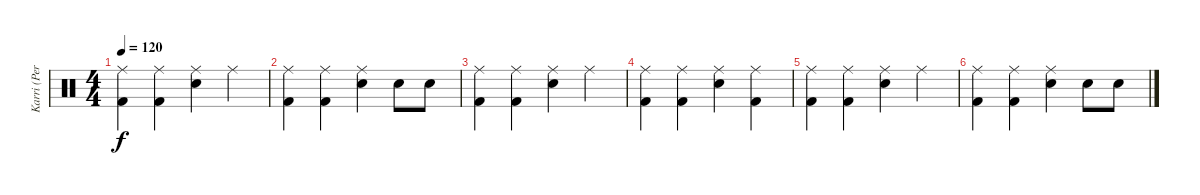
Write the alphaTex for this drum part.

\track ("Karri (Percussion)" "Karri (Per") {instrument percussion}
\staff {score}
\articulation defaults
\ts (4 4)
\tempo 120
\clef neutral
\ks c
("Ride (middle)" "Kick (hit) 2").4{dy f volume 7} ("Ride (middle)" "Kick (hit) 2").4 ("Ride (middle)" "Snare (hit) 2").4 "Ride (middle)".4 |
("Ride (middle)" "Kick (hit) 2").4 ("Ride (middle)" "Kick (hit) 2").4 ("Ride (middle)" "Snare (hit) 2").4 "Snare (hit) 2".8 "Snare (hit) 2".8 |
("Ride (middle)" "Kick (hit) 2").4 ("Ride (middle)" "Kick (hit) 2").4 ("Ride (middle)" "Snare (hit) 2").4 "Ride (middle)".4 |
("Ride (middle)" "Kick (hit) 2").4 ("Ride (middle)" "Kick (hit) 2").4 ("Ride (middle)" "Snare (hit) 2").4 ("Ride (middle)" "Kick (hit) 2").4 |
("Ride (middle)" "Kick (hit) 2").4{volume 4} ("Ride (middle)" "Kick (hit) 2").4 ("Ride (middle)" "Electric Snare (hit)").4 "Ride (middle)".4 |
("Ride (middle)" "Kick (hit) 2").4 ("Ride (middle)" "Kick (hit) 2").4 ("Ride (middle)" "Electric Snare (hit)").4 "Electric Snare (hit)".8 "Electric Snare (hit)".8
